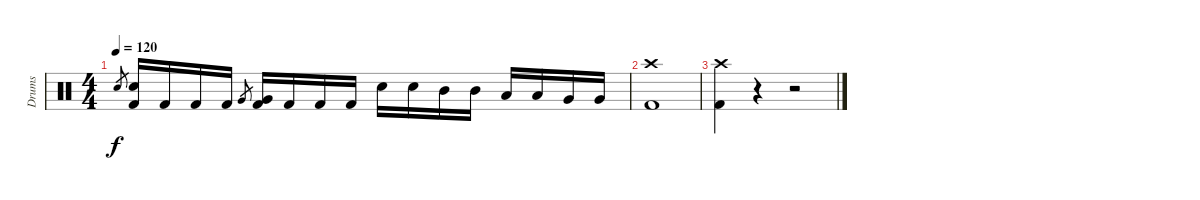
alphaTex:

\track ("Drums" "Drums") {instrument percussion}
\staff {score}
\articulation defaults
\ts (4 4)
\tempo 120
\clef neutral
\ks c "Electric Snare (hit)".8{gr dy f}
("Electric Snare (hit)" "Kick (hit) 2").16 "Kick (hit) 2".16 "Kick (hit) 2".16 "Kick (hit) 2".16 "Very Low Tom (hit)".8{gr} ("Very Low Tom (hit)" "Kick (hit) 2").16 "Kick (hit) 2".16 "Kick (hit) 2".16 "Kick (hit) 2".16 "Electric Snare (hit)".16 "Electric Snare (hit)".16 "Mid Tom (hit)".16 "Mid Tom (hit)".16 "Low Tom (hit)".16 "Low Tom (hit)".16 "Very Low Tom (hit)".16 "Very Low Tom (hit)".16 |
("Crash high (hit)" "Kick (hit) 2").1 |
("Crash high (hit)" "Kick (hit) 2").4 r.4 r.2
